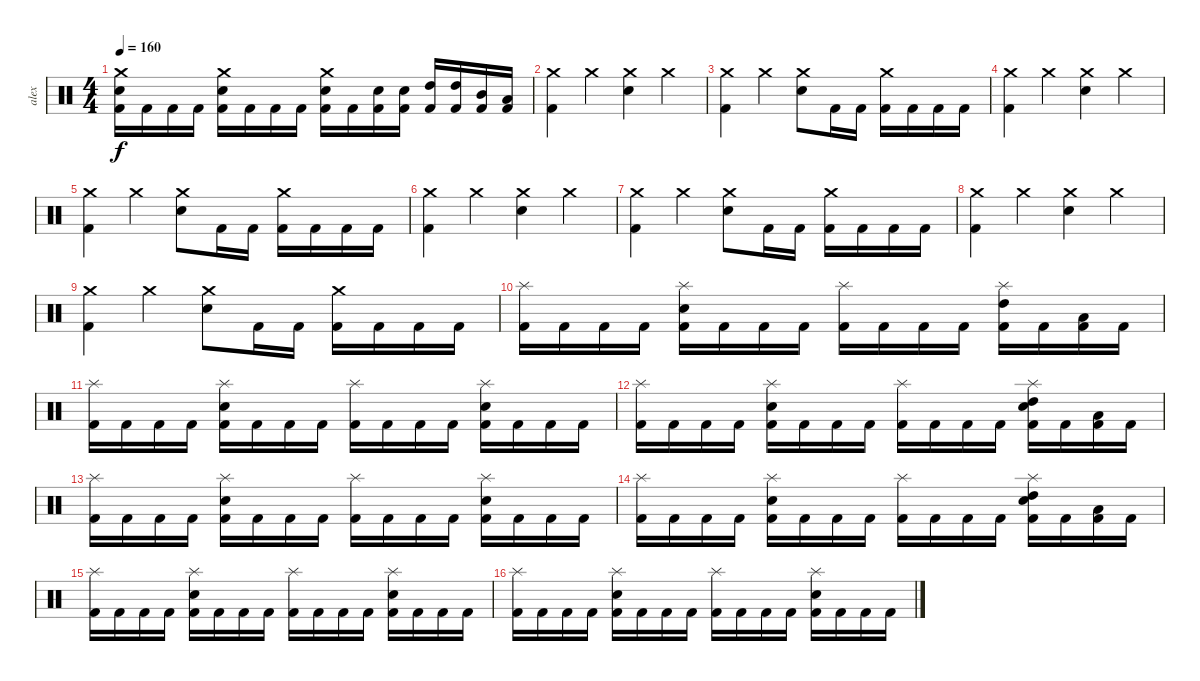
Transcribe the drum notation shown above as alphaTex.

\track ("alex" "alex") {instrument percussion}
\staff {score}
\articulation defaults
\ts (4 4)
\tempo 160
\clef neutral
\ks c
("Electric Snare (hit)" "Kick (hit) 2" "Crash medium (hit)").16{dy f} "Kick (hit) 2".16 "Kick (hit) 2".16 "Kick (hit) 2".16 ("Electric Snare (hit)" "Kick (hit) 2" "Crash medium (hit)").16 "Kick (hit) 2".16 "Kick (hit) 2".16 "Kick (hit) 2".16 ("Electric Snare (hit)" "Kick (hit) 2" "Crash medium (hit)").16 "Kick (hit) 2".16 ("Snare (hit) 2" "Kick (hit) 2").16 ("Snare (hit) 2" "Kick (hit) 2").16 ("High Tom (hit)" "Kick (hit) 2").16 ("High Tom (hit)" "Kick (hit) 2").16 ("Mid Tom (hit)" "Kick (hit) 2").16 ("Low Tom (hit)" "Kick (hit) 2").16 |
("Kick (hit) 2" "Crash medium (hit)").4 "Crash medium (hit)".4 ("Electric Snare (hit)" "Crash medium (hit)").4 "Crash medium (hit)".4 |
("Kick (hit) 2" "Crash medium (hit)").4 "Crash medium (hit)".4 ("Electric Snare (hit)" "Crash medium (hit)").8 "Kick (hit) 2".16 "Kick (hit) 2".16 ("Kick (hit) 2" "Crash medium (hit)").16 "Kick (hit) 2".16 "Kick (hit) 2".16 "Kick (hit) 2".16 |
("Kick (hit) 2" "Crash medium (hit)").4 "Crash medium (hit)".4 ("Electric Snare (hit)" "Crash medium (hit)").4 "Crash medium (hit)".4 |
("Kick (hit) 2" "Crash medium (hit)").4 "Crash medium (hit)".4 ("Electric Snare (hit)" "Crash medium (hit)").8 "Kick (hit) 2".16 "Kick (hit) 2".16 ("Kick (hit) 2" "Crash medium (hit)").16 "Kick (hit) 2".16 "Kick (hit) 2".16 "Kick (hit) 2".16 |
("Kick (hit) 2" "Crash medium (hit)").4 "Crash medium (hit)".4 ("Electric Snare (hit)" "Crash medium (hit)").4 "Crash medium (hit)".4 |
("Kick (hit) 2" "Crash medium (hit)").4 "Crash medium (hit)".4 ("Electric Snare (hit)" "Crash medium (hit)").8 "Kick (hit) 2".16 "Kick (hit) 2".16 ("Kick (hit) 2" "Crash medium (hit)").16 "Kick (hit) 2".16 "Kick (hit) 2".16 "Kick (hit) 2".16 |
("Kick (hit) 2" "Crash medium (hit)").4 "Crash medium (hit)".4 ("Electric Snare (hit)" "Crash medium (hit)").4 "Crash medium (hit)".4 |
("Kick (hit) 2" "Crash medium (hit)").4 "Crash medium (hit)".4 ("Electric Snare (hit)" "Crash medium (hit)").8 "Kick (hit) 2".16 "Kick (hit) 2".16 ("Kick (hit) 2" "Crash medium (hit)").16 "Kick (hit) 2".16 "Kick (hit) 2".16 "Kick (hit) 2".16 |
("Splash (hit)" "Kick (hit) 2").16 "Kick (hit) 2".16 "Kick (hit) 2".16 "Kick (hit) 2".16 ("Kick (hit) 2" "Electric Snare (hit)" "Splash (hit)").16 "Kick (hit) 2".16 "Kick (hit) 2".16 "Kick (hit) 2".16 ("Kick (hit) 2" "Splash (hit)").16 "Kick (hit) 2".16 "Kick (hit) 2".16 "Kick (hit) 2".16 ("Kick (hit) 2" "Splash (hit)" "High Tom (hit)").16 "Kick (hit) 2".16 ("Kick (hit) 2" "Low Tom (hit)").16 "Kick (hit) 2".16 |
("Splash (hit)" "Kick (hit) 2").16 "Kick (hit) 2".16 "Kick (hit) 2".16 "Kick (hit) 2".16 ("Kick (hit) 2" "Electric Snare (hit)" "Splash (hit)").16 "Kick (hit) 2".16 "Kick (hit) 2".16 "Kick (hit) 2".16 ("Kick (hit) 2" "Splash (hit)").16 "Kick (hit) 2".16 "Kick (hit) 2".16 "Kick (hit) 2".16 ("Kick (hit) 2" "Splash (hit)" "Electric Snare (hit)").16 "Kick (hit) 2".16 "Kick (hit) 2".16 "Kick (hit) 2".16 |
("Splash (hit)" "Kick (hit) 2").16 "Kick (hit) 2".16 "Kick (hit) 2".16 "Kick (hit) 2".16 ("Kick (hit) 2" "Electric Snare (hit)" "Splash (hit)").16 "Kick (hit) 2".16 "Kick (hit) 2".16 "Kick (hit) 2".16 ("Kick (hit) 2" "Splash (hit)").16 "Kick (hit) 2".16 "Kick (hit) 2".16 "Kick (hit) 2".16 ("Kick (hit) 2" "Splash (hit)" "Electric Snare (hit)" "High Tom (hit)").16 "Kick (hit) 2".16 ("Kick (hit) 2" "Low Tom (hit)").16 "Kick (hit) 2".16 |
("Splash (hit)" "Kick (hit) 2").16 "Kick (hit) 2".16 "Kick (hit) 2".16 "Kick (hit) 2".16 ("Kick (hit) 2" "Electric Snare (hit)" "Splash (hit)").16 "Kick (hit) 2".16 "Kick (hit) 2".16 "Kick (hit) 2".16 ("Kick (hit) 2" "Splash (hit)").16 "Kick (hit) 2".16 "Kick (hit) 2".16 "Kick (hit) 2".16 ("Kick (hit) 2" "Splash (hit)" "Electric Snare (hit)").16 "Kick (hit) 2".16 "Kick (hit) 2".16 "Kick (hit) 2".16 |
("Splash (hit)" "Kick (hit) 2").16 "Kick (hit) 2".16 "Kick (hit) 2".16 "Kick (hit) 2".16 ("Kick (hit) 2" "Electric Snare (hit)" "Splash (hit)").16 "Kick (hit) 2".16 "Kick (hit) 2".16 "Kick (hit) 2".16 ("Kick (hit) 2" "Splash (hit)").16 "Kick (hit) 2".16 "Kick (hit) 2".16 "Kick (hit) 2".16 ("Kick (hit) 2" "Splash (hit)" "Electric Snare (hit)" "High Tom (hit)").16 "Kick (hit) 2".16 ("Kick (hit) 2" "Low Tom (hit)").16 "Kick (hit) 2".16 |
("Splash (hit)" "Kick (hit) 2").16 "Kick (hit) 2".16 "Kick (hit) 2".16 "Kick (hit) 2".16 ("Kick (hit) 2" "Electric Snare (hit)" "Splash (hit)").16 "Kick (hit) 2".16 "Kick (hit) 2".16 "Kick (hit) 2".16 ("Kick (hit) 2" "Splash (hit)").16 "Kick (hit) 2".16 "Kick (hit) 2".16 "Kick (hit) 2".16 ("Kick (hit) 2" "Splash (hit)" "Electric Snare (hit)").16 "Kick (hit) 2".16 "Kick (hit) 2".16 "Kick (hit) 2".16 |
("Splash (hit)" "Kick (hit) 2").16 "Kick (hit) 2".16 "Kick (hit) 2".16 "Kick (hit) 2".16 ("Kick (hit) 2" "Electric Snare (hit)" "Splash (hit)").16 "Kick (hit) 2".16 "Kick (hit) 2".16 "Kick (hit) 2".16 ("Kick (hit) 2" "Splash (hit)").16 "Kick (hit) 2".16 "Kick (hit) 2".16 "Kick (hit) 2".16 ("Kick (hit) 2" "Splash (hit)" "Electric Snare (hit)").16 "Kick (hit) 2".16 "Kick (hit) 2".16 "Kick (hit) 2".16
